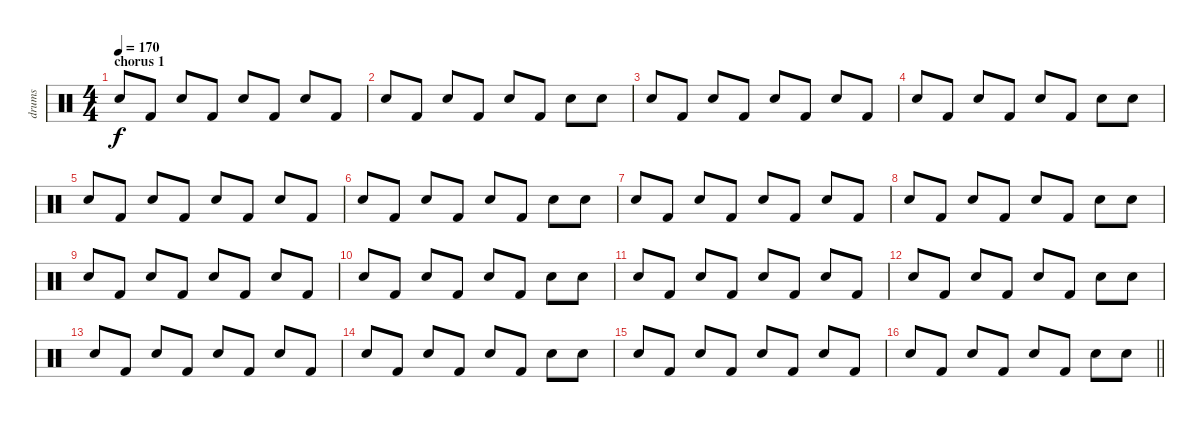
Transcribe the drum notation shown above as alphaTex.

\track ("drums" "drums") {instrument percussion}
\staff {score}
\articulation defaults
\ts (4 4)
\section ("" "chorus 1")
\tempo 170
\clef neutral
\ks c "Electric Snare (hit)".8{dy f} "Kick (hit) 2".8 "Electric Snare (hit)".8 "Kick (hit) 2".8 "Electric Snare (hit)".8 "Kick (hit) 2".8 "Electric Snare (hit)".8 "Kick (hit) 2".8
|
"Electric Snare (hit)".8 "Kick (hit) 2".8 "Electric Snare (hit)".8 "Kick (hit) 2".8 "Electric Snare (hit)".8 "Kick (hit) 2".8 "Electric Snare (hit)".8 "Electric Snare (hit)".8 |
"Electric Snare (hit)".8 "Kick (hit) 2".8 "Electric Snare (hit)".8 "Kick (hit) 2".8 "Electric Snare (hit)".8 "Kick (hit) 2".8 "Electric Snare (hit)".8 "Kick (hit) 2".8 |
"Electric Snare (hit)".8 "Kick (hit) 2".8 "Electric Snare (hit)".8 "Kick (hit) 2".8 "Electric Snare (hit)".8 "Kick (hit) 2".8 "Electric Snare (hit)".8 "Electric Snare (hit)".8 |
"Electric Snare (hit)".8 "Kick (hit) 2".8 "Electric Snare (hit)".8 "Kick (hit) 2".8 "Electric Snare (hit)".8 "Kick (hit) 2".8 "Electric Snare (hit)".8 "Kick (hit) 2".8 |
"Electric Snare (hit)".8 "Kick (hit) 2".8 "Electric Snare (hit)".8 "Kick (hit) 2".8 "Electric Snare (hit)".8 "Kick (hit) 2".8 "Electric Snare (hit)".8 "Electric Snare (hit)".8 |
"Electric Snare (hit)".8 "Kick (hit) 2".8 "Electric Snare (hit)".8 "Kick (hit) 2".8 "Electric Snare (hit)".8 "Kick (hit) 2".8 "Electric Snare (hit)".8 "Kick (hit) 2".8 |
"Electric Snare (hit)".8 "Kick (hit) 2".8 "Electric Snare (hit)".8 "Kick (hit) 2".8 "Electric Snare (hit)".8 "Kick (hit) 2".8 "Electric Snare (hit)".8 "Electric Snare (hit)".8 |
"Electric Snare (hit)".8 "Kick (hit) 2".8 "Electric Snare (hit)".8 "Kick (hit) 2".8 "Electric Snare (hit)".8 "Kick (hit) 2".8 "Electric Snare (hit)".8 "Kick (hit) 2".8 |
"Electric Snare (hit)".8 "Kick (hit) 2".8 "Electric Snare (hit)".8 "Kick (hit) 2".8 "Electric Snare (hit)".8 "Kick (hit) 2".8 "Electric Snare (hit)".8 "Electric Snare (hit)".8 |
"Electric Snare (hit)".8 "Kick (hit) 2".8 "Electric Snare (hit)".8 "Kick (hit) 2".8 "Electric Snare (hit)".8 "Kick (hit) 2".8 "Electric Snare (hit)".8 "Kick (hit) 2".8 |
"Electric Snare (hit)".8 "Kick (hit) 2".8 "Electric Snare (hit)".8 "Kick (hit) 2".8 "Electric Snare (hit)".8 "Kick (hit) 2".8 "Electric Snare (hit)".8 "Electric Snare (hit)".8 |
"Electric Snare (hit)".8 "Kick (hit) 2".8 "Electric Snare (hit)".8 "Kick (hit) 2".8 "Electric Snare (hit)".8 "Kick (hit) 2".8 "Electric Snare (hit)".8 "Kick (hit) 2".8 |
"Electric Snare (hit)".8 "Kick (hit) 2".8 "Electric Snare (hit)".8 "Kick (hit) 2".8 "Electric Snare (hit)".8 "Kick (hit) 2".8 "Electric Snare (hit)".8 "Electric Snare (hit)".8 |
"Electric Snare (hit)".8 "Kick (hit) 2".8 "Electric Snare (hit)".8 "Kick (hit) 2".8 "Electric Snare (hit)".8 "Kick (hit) 2".8 "Electric Snare (hit)".8 "Kick (hit) 2".8 |
\barLineRight lightlight "Electric Snare (hit)".8 "Kick (hit) 2".8 "Electric Snare (hit)".8 "Kick (hit) 2".8 "Electric Snare (hit)".8 "Kick (hit) 2".8 "Electric Snare (hit)".8 "Electric Snare (hit)".8
